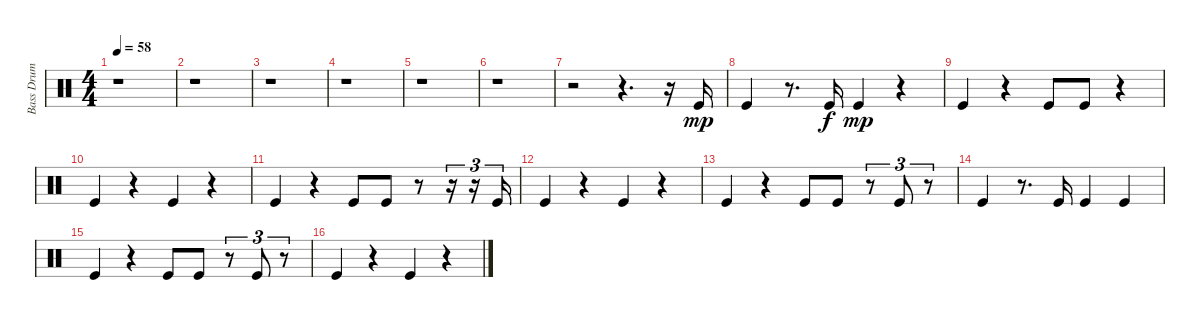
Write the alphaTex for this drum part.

\track ("Bass Drum" "Bass Drum") {instrument percussion}
\staff {score}
\articulation defaults
\ts (4 4)
\tempo 58
\clef neutral
\ks c
r.1{dy mp} |
r.1 |
r.1 |
r.1 |
r.1 |
r.1 |
r.2 r.4{d} r.16 "Kick (hit)".16 |
"Kick (hit)".4 r.8{d} "Kick (hit)".16{dy f} "Kick (hit)".4{dy mp} r.4 |
"Kick (hit)".4 r.4 "Kick (hit)".8 "Kick (hit)".8 r.4 |
"Kick (hit)".4 r.4 "Kick (hit)".4 r.4 |
"Kick (hit)".4 r.4 "Kick (hit)".8 "Kick (hit)".8 r.8 r.16{tu (3 2)} r.16{tu (3 2)} "Kick (hit)".16{tu (3 2)} |
"Kick (hit)".4 r.4 "Kick (hit)".4 r.4 |
"Kick (hit)".4 r.4 "Kick (hit)".8 "Kick (hit)".8 r.8{tu (3 2)} "Kick (hit)".8{tu (3 2)} r.8{tu (3 2)} |
"Kick (hit)".4 r.8{d} "Kick (hit)".16 "Kick (hit)".4 "Kick (hit)".4 |
"Kick (hit)".4 r.4 "Kick (hit)".8 "Kick (hit)".8 r.8{tu (3 2)} "Kick (hit)".8{tu (3 2)} r.8{tu (3 2)} |
"Kick (hit)".4 r.4 "Kick (hit)".4 r.4
